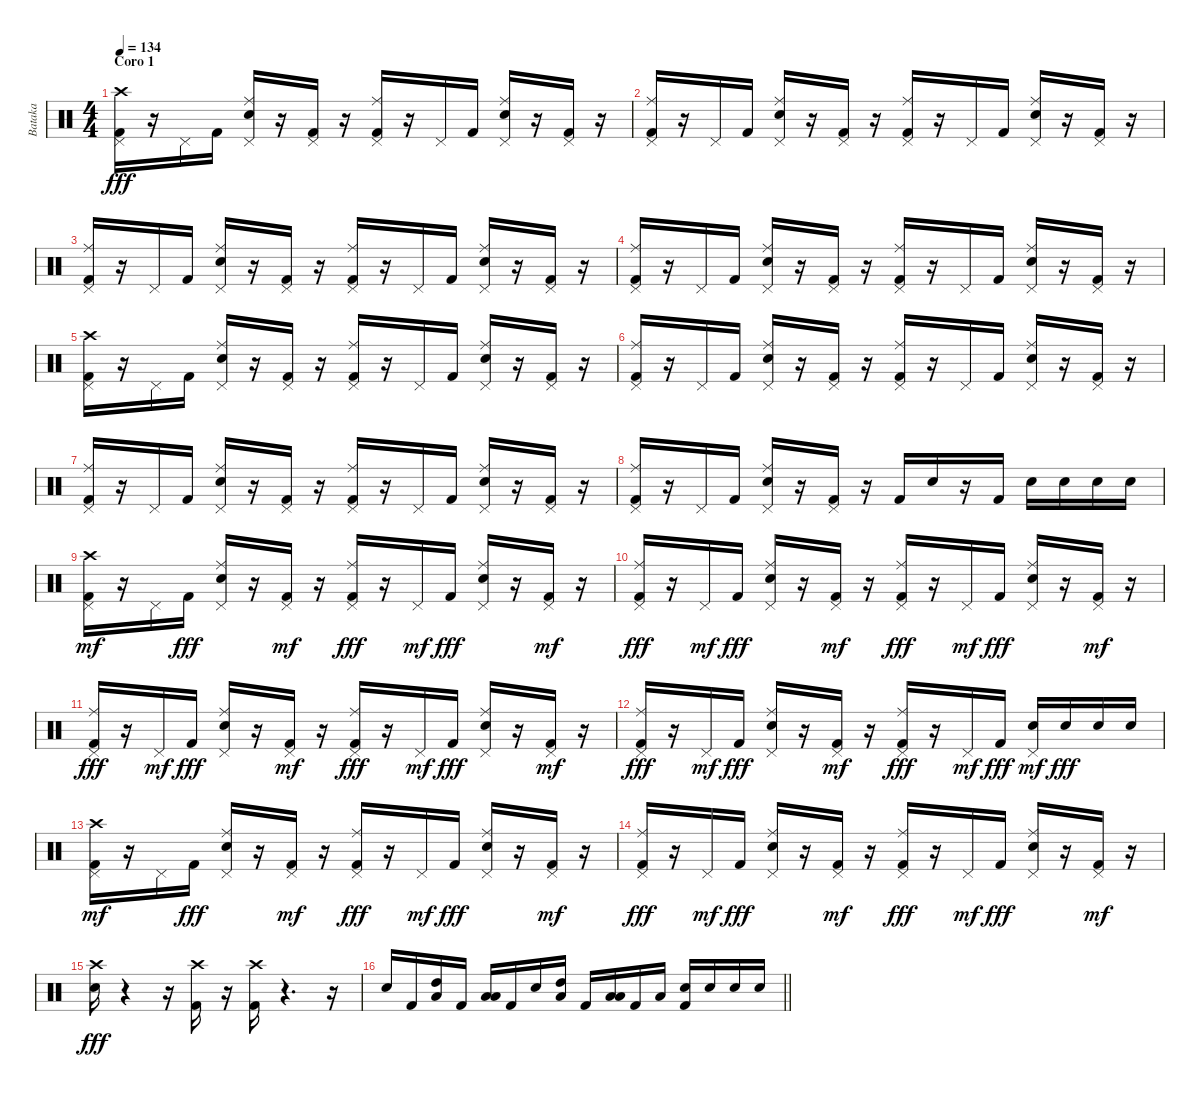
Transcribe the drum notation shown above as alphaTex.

\track ("Bataka" "Bataka") {instrument percussion}
\staff {score}
\articulation defaults
\ts (4 4)
\section ("" "Coro 1")
\tempo 134
\clef neutral
\ks c
("Pedal Hi-Hat (hit)" "Kick (hit) 2" "Crash high (hit)").16{dy fff} r.16 "Pedal Hi-Hat (hit)".16 "Kick (hit) 2".16 ("Pedal Hi-Hat (hit)" "Snare (hit) 2" "Ride (middle)").16 r.16 ("Pedal Hi-Hat (hit)" "Kick (hit) 2").16 r.16 ("Pedal Hi-Hat (hit)" "Kick (hit) 2" "Ride (middle)").16 r.16 "Pedal Hi-Hat (hit)".16 "Kick (hit) 2".16 ("Pedal Hi-Hat (hit)" "Snare (hit) 2" "Ride (middle)").16 r.16 ("Pedal Hi-Hat (hit)" "Kick (hit) 2").16 r.16 |
("Pedal Hi-Hat (hit)" "Kick (hit) 2" "Ride (middle)").16 r.16 "Pedal Hi-Hat (hit)".16 "Kick (hit) 2".16 ("Pedal Hi-Hat (hit)" "Snare (hit) 2" "Ride (middle)").16 r.16 ("Pedal Hi-Hat (hit)" "Kick (hit) 2").16 r.16 ("Pedal Hi-Hat (hit)" "Kick (hit) 2" "Ride (middle)").16 r.16 "Pedal Hi-Hat (hit)".16 "Kick (hit) 2".16 ("Pedal Hi-Hat (hit)" "Snare (hit) 2" "Ride (middle)").16 r.16 ("Pedal Hi-Hat (hit)" "Kick (hit) 2").16 r.16 |
("Pedal Hi-Hat (hit)" "Kick (hit) 2" "Ride (middle)").16 r.16 "Pedal Hi-Hat (hit)".16 "Kick (hit) 2".16 ("Pedal Hi-Hat (hit)" "Snare (hit) 2" "Ride (middle)").16 r.16 ("Pedal Hi-Hat (hit)" "Kick (hit) 2").16 r.16 ("Pedal Hi-Hat (hit)" "Kick (hit) 2" "Ride (middle)").16 r.16 "Pedal Hi-Hat (hit)".16 "Kick (hit) 2".16 ("Pedal Hi-Hat (hit)" "Snare (hit) 2" "Ride (middle)").16 r.16 ("Pedal Hi-Hat (hit)" "Kick (hit) 2").16 r.16 |
("Pedal Hi-Hat (hit)" "Kick (hit) 2" "Ride (middle)").16 r.16 "Pedal Hi-Hat (hit)".16 "Kick (hit) 2".16 ("Pedal Hi-Hat (hit)" "Snare (hit) 2" "Ride (middle)").16 r.16 ("Pedal Hi-Hat (hit)" "Kick (hit) 2").16 r.16 ("Pedal Hi-Hat (hit)" "Kick (hit) 2" "Ride (middle)").16 r.16 "Pedal Hi-Hat (hit)".16 "Kick (hit) 2".16 ("Pedal Hi-Hat (hit)" "Snare (hit) 2" "Ride (middle)").16 r.16 ("Pedal Hi-Hat (hit)" "Kick (hit) 2").16 r.16 |
("Pedal Hi-Hat (hit)" "Kick (hit) 2" "Crash high (hit)").16 r.16 "Pedal Hi-Hat (hit)".16 "Kick (hit) 2".16 ("Pedal Hi-Hat (hit)" "Snare (hit) 2" "Ride (middle)").16 r.16 ("Pedal Hi-Hat (hit)" "Kick (hit) 2").16 r.16 ("Pedal Hi-Hat (hit)" "Kick (hit) 2" "Ride (middle)").16 r.16 "Pedal Hi-Hat (hit)".16 "Kick (hit) 2".16 ("Pedal Hi-Hat (hit)" "Snare (hit) 2" "Ride (middle)").16 r.16 ("Pedal Hi-Hat (hit)" "Kick (hit) 2").16 r.16 |
("Pedal Hi-Hat (hit)" "Kick (hit) 2" "Ride (middle)").16 r.16 "Pedal Hi-Hat (hit)".16 "Kick (hit) 2".16 ("Pedal Hi-Hat (hit)" "Snare (hit) 2" "Ride (middle)").16 r.16 ("Pedal Hi-Hat (hit)" "Kick (hit) 2").16 r.16 ("Pedal Hi-Hat (hit)" "Kick (hit) 2" "Ride (middle)").16 r.16 "Pedal Hi-Hat (hit)".16 "Kick (hit) 2".16 ("Pedal Hi-Hat (hit)" "Snare (hit) 2" "Ride (middle)").16 r.16 ("Pedal Hi-Hat (hit)" "Kick (hit) 2").16 r.16 |
("Pedal Hi-Hat (hit)" "Kick (hit) 2" "Ride (middle)").16 r.16 "Pedal Hi-Hat (hit)".16 "Kick (hit) 2".16 ("Pedal Hi-Hat (hit)" "Snare (hit) 2" "Ride (middle)").16 r.16 ("Pedal Hi-Hat (hit)" "Kick (hit) 2").16 r.16 ("Pedal Hi-Hat (hit)" "Kick (hit) 2" "Ride (middle)").16 r.16 "Pedal Hi-Hat (hit)".16 "Kick (hit) 2".16 ("Pedal Hi-Hat (hit)" "Snare (hit) 2" "Ride (middle)").16 r.16 ("Pedal Hi-Hat (hit)" "Kick (hit) 2").16 r.16 |
("Pedal Hi-Hat (hit)" "Kick (hit) 2" "Ride (middle)").16 r.16 "Pedal Hi-Hat (hit)".16 "Kick (hit) 2".16 ("Pedal Hi-Hat (hit)" "Snare (hit) 2" "Ride (middle)").16 r.16 ("Pedal Hi-Hat (hit)" "Kick (hit) 2").16 r.16 "Kick (hit) 2".16 "Snare (hit) 2".16 r.16 "Kick (hit) 2".16 "Snare (hit) 2".16 "Snare (hit) 2".16 "Snare (hit) 2".16 "Snare (hit) 2".16 |
("Kick (hit) 2" "Crash high (hit)" "Pedal Hi-Hat (hit)").16{dy mf} r.16 "Pedal Hi-Hat (hit)".16 "Kick (hit) 2".16{dy fff} ("Snare (hit) 2" "Pedal Hi-Hat (hit)" "Ride (middle)").16 r.16 ("Kick (hit) 2" "Pedal Hi-Hat (hit)").16{dy mf} r.16 ("Kick (hit) 2" "Pedal Hi-Hat (hit)" "Ride (middle)").16{dy fff} r.16 "Pedal Hi-Hat (hit)".16{dy mf} "Kick (hit) 2".16{dy fff} ("Snare (hit) 2" "Pedal Hi-Hat (hit)" "Ride (middle)").16 r.16 ("Kick (hit) 2" "Pedal Hi-Hat (hit)").16{dy mf} r.16 |
("Kick (hit) 2" "Pedal Hi-Hat (hit)" "Ride (middle)").16{dy fff} r.16 "Pedal Hi-Hat (hit)".16{dy mf} "Kick (hit) 2".16{dy fff} ("Snare (hit) 2" "Pedal Hi-Hat (hit)" "Ride (middle)").16 r.16 ("Kick (hit) 2" "Pedal Hi-Hat (hit)").16{dy mf} r.16 ("Kick (hit) 2" "Pedal Hi-Hat (hit)" "Ride (middle)").16{dy fff} r.16 "Pedal Hi-Hat (hit)".16{dy mf} "Kick (hit) 2".16{dy fff} ("Snare (hit) 2" "Pedal Hi-Hat (hit)" "Ride (middle)").16 r.16 ("Kick (hit) 2" "Pedal Hi-Hat (hit)").16{dy mf} r.16 |
("Kick (hit) 2" "Pedal Hi-Hat (hit)" "Ride (middle)").16{dy fff} r.16 "Pedal Hi-Hat (hit)".16{dy mf} "Kick (hit) 2".16{dy fff} ("Snare (hit) 2" "Pedal Hi-Hat (hit)" "Ride (middle)").16 r.16 ("Kick (hit) 2" "Pedal Hi-Hat (hit)").16{dy mf} r.16 ("Kick (hit) 2" "Pedal Hi-Hat (hit)" "Ride (middle)").16{dy fff} r.16 "Pedal Hi-Hat (hit)".16{dy mf} "Kick (hit) 2".16{dy fff} ("Snare (hit) 2" "Pedal Hi-Hat (hit)" "Ride (middle)").16 r.16 ("Kick (hit) 2" "Pedal Hi-Hat (hit)").16{dy mf} r.16 |
("Kick (hit) 2" "Pedal Hi-Hat (hit)" "Ride (middle)").16{dy fff} r.16 "Pedal Hi-Hat (hit)".16{dy mf} "Kick (hit) 2".16{dy fff} ("Snare (hit) 2" "Pedal Hi-Hat (hit)" "Ride (middle)").16 r.16 ("Kick (hit) 2" "Pedal Hi-Hat (hit)").16{dy mf} r.16 ("Kick (hit) 2" "Pedal Hi-Hat (hit)" "Ride (middle)").16{dy fff} r.16 "Pedal Hi-Hat (hit)".16{dy mf} "Kick (hit) 2".16{dy fff} ("Snare (hit) 2" "Pedal Hi-Hat (hit)").16{dy mf} "Snare (hit) 2".16{dy fff} "Snare (hit) 2".16 "Snare (hit) 2".16 |
("Kick (hit) 2" "Crash high (hit)" "Pedal Hi-Hat (hit)").16{dy mf} r.16 "Pedal Hi-Hat (hit)".16 "Kick (hit) 2".16{dy fff} ("Snare (hit) 2" "Pedal Hi-Hat (hit)" "Ride (middle)").16 r.16 ("Kick (hit) 2" "Pedal Hi-Hat (hit)").16{dy mf} r.16 ("Kick (hit) 2" "Pedal Hi-Hat (hit)" "Ride (middle)").16{dy fff} r.16 "Pedal Hi-Hat (hit)".16{dy mf} "Kick (hit) 2".16{dy fff} ("Snare (hit) 2" "Pedal Hi-Hat (hit)" "Ride (middle)").16 r.16 ("Kick (hit) 2" "Pedal Hi-Hat (hit)").16{dy mf} r.16 |
("Kick (hit) 2" "Pedal Hi-Hat (hit)" "Ride (middle)").16{dy fff} r.16 "Pedal Hi-Hat (hit)".16{dy mf} "Kick (hit) 2".16{dy fff} ("Snare (hit) 2" "Pedal Hi-Hat (hit)" "Ride (middle)").16 r.16 ("Kick (hit) 2" "Pedal Hi-Hat (hit)").16{dy mf} r.16 ("Kick (hit) 2" "Pedal Hi-Hat (hit)" "Ride (middle)").16{dy fff} r.16 "Pedal Hi-Hat (hit)".16{dy mf} "Kick (hit) 2".16{dy fff} ("Snare (hit) 2" "Pedal Hi-Hat (hit)" "Ride (middle)").16 r.16 ("Kick (hit) 2" "Pedal Hi-Hat (hit)").16{dy mf} r.16 |
("Snare (hit) 2" "Crash high (hit)").16{dy fff} r.4 r.16 ("Crash high (hit)" "Kick (hit) 2").16 r.16 ("Crash high (hit)" "Kick (hit) 2").16 r.4{d} r.16 |
\barLineRight lightlight "Snare (hit) 2".16 "Kick (hit) 2".16
("High Tom (hit)" "Low Floor Tom (hit)").16 "Kick (hit) 2".16 ("Low Floor Tom (hit)" "Low Tom (hit)").16 "Kick (hit) 2".16 "Snare (hit) 2".16 ("High Tom (hit)" "Low Floor Tom (hit)").16 "Kick (hit) 2".16 ("Low Tom (hit)" "Low Floor Tom (hit)").16 "Kick (hit) 2".16 "Low Floor Tom (hit)".16 ("Snare (hit) 2" "Kick (hit) 2").16 "Snare (hit) 2".16 "Snare (hit) 2".16 "Snare (hit) 2".16
